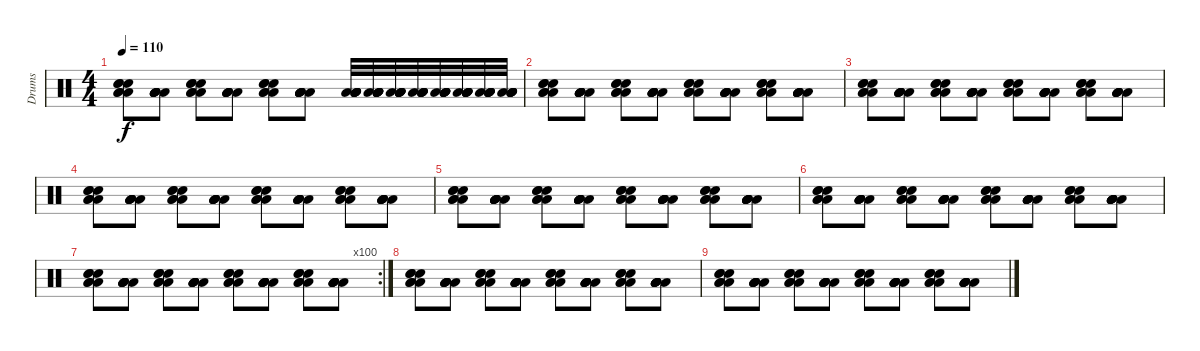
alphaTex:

\track ("Drums" "Drums") {instrument percussion}
\staff {score}
\articulation defaults
\ts (4 4)
\tempo 110
\clef neutral
\ks c
("Electric Snare (hit)" "Electric Snare (hit)" "Electric Snare (hit)" "Low Floor Tom (hit)" "Low Floor Tom (hit)" "Low Floor Tom (hit)").8{dy f} ("Low Floor Tom (hit)" "Low Floor Tom (hit)" "Low Floor Tom (hit)" "Low Floor Tom (hit)" "Low Floor Tom (hit)" "Low Floor Tom (hit)").8 ("Electric Snare (hit)" "Electric Snare (hit)" "Electric Snare (hit)" "Low Floor Tom (hit)" "Low Floor Tom (hit)" "Low Floor Tom (hit)").8 ("Low Floor Tom (hit)" "Low Floor Tom (hit)" "Low Floor Tom (hit)" "Low Floor Tom (hit)" "Low Floor Tom (hit)" "Low Floor Tom (hit)").8 ("Electric Snare (hit)" "Electric Snare (hit)" "Electric Snare (hit)" "Low Floor Tom (hit)" "Low Floor Tom (hit)" "Low Floor Tom (hit)").8 ("Low Floor Tom (hit)" "Low Floor Tom (hit)" "Low Floor Tom (hit)" "Low Floor Tom (hit)" "Low Floor Tom (hit)" "Low Floor Tom (hit)").8 ("Low Floor Tom (hit)" "Low Floor Tom (hit)" "Low Floor Tom (hit)" "Low Floor Tom (hit)" "Low Floor Tom (hit)" "Low Floor Tom (hit)").32 ("Low Floor Tom (hit)" "Low Floor Tom (hit)" "Low Floor Tom (hit)" "Low Floor Tom (hit)" "Low Floor Tom (hit)" "Low Floor Tom (hit)").32 ("Low Floor Tom (hit)" "Low Floor Tom (hit)" "Low Floor Tom (hit)" "Low Floor Tom (hit)" "Low Floor Tom (hit)" "Low Floor Tom (hit)").32 ("Low Floor Tom (hit)" "Low Floor Tom (hit)" "Low Floor Tom (hit)" "Low Floor Tom (hit)" "Low Floor Tom (hit)" "Low Floor Tom (hit)").32 ("Low Floor Tom (hit)" "Low Floor Tom (hit)" "Low Floor Tom (hit)" "Low Floor Tom (hit)" "Low Floor Tom (hit)" "Low Floor Tom (hit)").32 ("Low Floor Tom (hit)" "Low Floor Tom (hit)" "Low Floor Tom (hit)" "Low Floor Tom (hit)" "Low Floor Tom (hit)" "Low Floor Tom (hit)").32 ("Low Floor Tom (hit)" "Low Floor Tom (hit)" "Low Floor Tom (hit)" "Low Floor Tom (hit)" "Low Floor Tom (hit)" "Low Floor Tom (hit)").32 ("Low Floor Tom (hit)" "Low Floor Tom (hit)" "Low Floor Tom (hit)" "Low Floor Tom (hit)" "Low Floor Tom (hit)" "Low Floor Tom (hit)").32 |
("Electric Snare (hit)" "Electric Snare (hit)" "Electric Snare (hit)" "Low Floor Tom (hit)" "Low Floor Tom (hit)" "Low Floor Tom (hit)").8 ("Low Floor Tom (hit)" "Low Floor Tom (hit)" "Low Floor Tom (hit)" "Low Floor Tom (hit)" "Low Floor Tom (hit)" "Low Floor Tom (hit)").8 ("Electric Snare (hit)" "Electric Snare (hit)" "Electric Snare (hit)" "Low Floor Tom (hit)" "Low Floor Tom (hit)" "Low Floor Tom (hit)").8 ("Low Floor Tom (hit)" "Low Floor Tom (hit)" "Low Floor Tom (hit)" "Low Floor Tom (hit)" "Low Floor Tom (hit)" "Low Floor Tom (hit)").8 ("Electric Snare (hit)" "Electric Snare (hit)" "Electric Snare (hit)" "Low Floor Tom (hit)" "Low Floor Tom (hit)" "Low Floor Tom (hit)").8 ("Low Floor Tom (hit)" "Low Floor Tom (hit)" "Low Floor Tom (hit)" "Low Floor Tom (hit)" "Low Floor Tom (hit)" "Low Floor Tom (hit)").8 ("Electric Snare (hit)" "Electric Snare (hit)" "Electric Snare (hit)" "Low Floor Tom (hit)" "Low Floor Tom (hit)" "Low Floor Tom (hit)").8 ("Low Floor Tom (hit)" "Low Floor Tom (hit)" "Low Floor Tom (hit)" "Low Floor Tom (hit)" "Low Floor Tom (hit)" "Low Floor Tom (hit)").8 |
("Electric Snare (hit)" "Electric Snare (hit)" "Electric Snare (hit)" "Low Floor Tom (hit)" "Low Floor Tom (hit)" "Low Floor Tom (hit)").8 ("Low Floor Tom (hit)" "Low Floor Tom (hit)" "Low Floor Tom (hit)" "Low Floor Tom (hit)" "Low Floor Tom (hit)" "Low Floor Tom (hit)").8 ("Electric Snare (hit)" "Electric Snare (hit)" "Electric Snare (hit)" "Low Floor Tom (hit)" "Low Floor Tom (hit)" "Low Floor Tom (hit)").8 ("Low Floor Tom (hit)" "Low Floor Tom (hit)" "Low Floor Tom (hit)" "Low Floor Tom (hit)" "Low Floor Tom (hit)" "Low Floor Tom (hit)").8 ("Electric Snare (hit)" "Electric Snare (hit)" "Electric Snare (hit)" "Low Floor Tom (hit)" "Low Floor Tom (hit)" "Low Floor Tom (hit)").8 ("Low Floor Tom (hit)" "Low Floor Tom (hit)" "Low Floor Tom (hit)" "Low Floor Tom (hit)" "Low Floor Tom (hit)" "Low Floor Tom (hit)").8 ("Electric Snare (hit)" "Electric Snare (hit)" "Electric Snare (hit)" "Low Floor Tom (hit)" "Low Floor Tom (hit)" "Low Floor Tom (hit)").8 ("Low Floor Tom (hit)" "Low Floor Tom (hit)" "Low Floor Tom (hit)" "Low Floor Tom (hit)" "Low Floor Tom (hit)" "Low Floor Tom (hit)").8 |
("Electric Snare (hit)" "Electric Snare (hit)" "Electric Snare (hit)" "Low Floor Tom (hit)" "Low Floor Tom (hit)" "Low Floor Tom (hit)").8 ("Low Floor Tom (hit)" "Low Floor Tom (hit)" "Low Floor Tom (hit)" "Low Floor Tom (hit)" "Low Floor Tom (hit)" "Low Floor Tom (hit)").8 ("Electric Snare (hit)" "Electric Snare (hit)" "Electric Snare (hit)" "Low Floor Tom (hit)" "Low Floor Tom (hit)" "Low Floor Tom (hit)").8 ("Low Floor Tom (hit)" "Low Floor Tom (hit)" "Low Floor Tom (hit)" "Low Floor Tom (hit)" "Low Floor Tom (hit)" "Low Floor Tom (hit)").8 ("Electric Snare (hit)" "Electric Snare (hit)" "Electric Snare (hit)" "Low Floor Tom (hit)" "Low Floor Tom (hit)" "Low Floor Tom (hit)").8 ("Low Floor Tom (hit)" "Low Floor Tom (hit)" "Low Floor Tom (hit)" "Low Floor Tom (hit)" "Low Floor Tom (hit)" "Low Floor Tom (hit)").8 ("Electric Snare (hit)" "Electric Snare (hit)" "Electric Snare (hit)" "Low Floor Tom (hit)" "Low Floor Tom (hit)" "Low Floor Tom (hit)").8 ("Low Floor Tom (hit)" "Low Floor Tom (hit)" "Low Floor Tom (hit)" "Low Floor Tom (hit)" "Low Floor Tom (hit)" "Low Floor Tom (hit)").8 |
("Electric Snare (hit)" "Electric Snare (hit)" "Electric Snare (hit)" "Low Floor Tom (hit)" "Low Floor Tom (hit)" "Low Floor Tom (hit)").8 ("Low Floor Tom (hit)" "Low Floor Tom (hit)" "Low Floor Tom (hit)" "Low Floor Tom (hit)" "Low Floor Tom (hit)" "Low Floor Tom (hit)").8 ("Electric Snare (hit)" "Electric Snare (hit)" "Electric Snare (hit)" "Low Floor Tom (hit)" "Low Floor Tom (hit)" "Low Floor Tom (hit)").8 ("Low Floor Tom (hit)" "Low Floor Tom (hit)" "Low Floor Tom (hit)" "Low Floor Tom (hit)" "Low Floor Tom (hit)" "Low Floor Tom (hit)").8 ("Electric Snare (hit)" "Electric Snare (hit)" "Electric Snare (hit)" "Low Floor Tom (hit)" "Low Floor Tom (hit)" "Low Floor Tom (hit)").8 ("Low Floor Tom (hit)" "Low Floor Tom (hit)" "Low Floor Tom (hit)" "Low Floor Tom (hit)" "Low Floor Tom (hit)" "Low Floor Tom (hit)").8 ("Electric Snare (hit)" "Electric Snare (hit)" "Electric Snare (hit)" "Low Floor Tom (hit)" "Low Floor Tom (hit)" "Low Floor Tom (hit)").8 ("Low Floor Tom (hit)" "Low Floor Tom (hit)" "Low Floor Tom (hit)" "Low Floor Tom (hit)" "Low Floor Tom (hit)" "Low Floor Tom (hit)").8 |
("Electric Snare (hit)" "Electric Snare (hit)" "Electric Snare (hit)" "Low Floor Tom (hit)" "Low Floor Tom (hit)" "Low Floor Tom (hit)").8 ("Low Floor Tom (hit)" "Low Floor Tom (hit)" "Low Floor Tom (hit)" "Low Floor Tom (hit)" "Low Floor Tom (hit)" "Low Floor Tom (hit)").8 ("Electric Snare (hit)" "Electric Snare (hit)" "Electric Snare (hit)" "Low Floor Tom (hit)" "Low Floor Tom (hit)" "Low Floor Tom (hit)").8 ("Low Floor Tom (hit)" "Low Floor Tom (hit)" "Low Floor Tom (hit)" "Low Floor Tom (hit)" "Low Floor Tom (hit)" "Low Floor Tom (hit)").8 ("Electric Snare (hit)" "Electric Snare (hit)" "Electric Snare (hit)" "Low Floor Tom (hit)" "Low Floor Tom (hit)" "Low Floor Tom (hit)").8 ("Low Floor Tom (hit)" "Low Floor Tom (hit)" "Low Floor Tom (hit)" "Low Floor Tom (hit)" "Low Floor Tom (hit)" "Low Floor Tom (hit)").8 ("Electric Snare (hit)" "Electric Snare (hit)" "Electric Snare (hit)" "Low Floor Tom (hit)" "Low Floor Tom (hit)" "Low Floor Tom (hit)").8 ("Low Floor Tom (hit)" "Low Floor Tom (hit)" "Low Floor Tom (hit)" "Low Floor Tom (hit)" "Low Floor Tom (hit)" "Low Floor Tom (hit)").8 |
\rc 100
("Electric Snare (hit)" "Electric Snare (hit)" "Electric Snare (hit)" "Low Floor Tom (hit)" "Low Floor Tom (hit)" "Low Floor Tom (hit)").8 ("Low Floor Tom (hit)" "Low Floor Tom (hit)" "Low Floor Tom (hit)" "Low Floor Tom (hit)" "Low Floor Tom (hit)" "Low Floor Tom (hit)").8 ("Electric Snare (hit)" "Electric Snare (hit)" "Electric Snare (hit)" "Low Floor Tom (hit)" "Low Floor Tom (hit)" "Low Floor Tom (hit)").8 ("Low Floor Tom (hit)" "Low Floor Tom (hit)" "Low Floor Tom (hit)" "Low Floor Tom (hit)" "Low Floor Tom (hit)" "Low Floor Tom (hit)").8 ("Electric Snare (hit)" "Electric Snare (hit)" "Electric Snare (hit)" "Low Floor Tom (hit)" "Low Floor Tom (hit)" "Low Floor Tom (hit)").8 ("Low Floor Tom (hit)" "Low Floor Tom (hit)" "Low Floor Tom (hit)" "Low Floor Tom (hit)" "Low Floor Tom (hit)" "Low Floor Tom (hit)").8 ("Electric Snare (hit)" "Electric Snare (hit)" "Electric Snare (hit)" "Low Floor Tom (hit)" "Low Floor Tom (hit)" "Low Floor Tom (hit)").8 ("Low Floor Tom (hit)" "Low Floor Tom (hit)" "Low Floor Tom (hit)" "Low Floor Tom (hit)" "Low Floor Tom (hit)" "Low Floor Tom (hit)").8 |
("Electric Snare (hit)" "Electric Snare (hit)" "Electric Snare (hit)" "Low Floor Tom (hit)" "Low Floor Tom (hit)" "Low Floor Tom (hit)").8 ("Low Floor Tom (hit)" "Low Floor Tom (hit)" "Low Floor Tom (hit)" "Low Floor Tom (hit)" "Low Floor Tom (hit)" "Low Floor Tom (hit)").8 ("Electric Snare (hit)" "Electric Snare (hit)" "Electric Snare (hit)" "Low Floor Tom (hit)" "Low Floor Tom (hit)" "Low Floor Tom (hit)").8 ("Low Floor Tom (hit)" "Low Floor Tom (hit)" "Low Floor Tom (hit)" "Low Floor Tom (hit)" "Low Floor Tom (hit)" "Low Floor Tom (hit)").8 ("Electric Snare (hit)" "Electric Snare (hit)" "Electric Snare (hit)" "Low Floor Tom (hit)" "Low Floor Tom (hit)" "Low Floor Tom (hit)").8 ("Low Floor Tom (hit)" "Low Floor Tom (hit)" "Low Floor Tom (hit)" "Low Floor Tom (hit)" "Low Floor Tom (hit)" "Low Floor Tom (hit)").8 ("Electric Snare (hit)" "Electric Snare (hit)" "Electric Snare (hit)" "Low Floor Tom (hit)" "Low Floor Tom (hit)" "Low Floor Tom (hit)").8 ("Low Floor Tom (hit)" "Low Floor Tom (hit)" "Low Floor Tom (hit)" "Low Floor Tom (hit)" "Low Floor Tom (hit)" "Low Floor Tom (hit)").8 |
("Electric Snare (hit)" "Electric Snare (hit)" "Electric Snare (hit)" "Low Floor Tom (hit)" "Low Floor Tom (hit)" "Low Floor Tom (hit)").8 ("Low Floor Tom (hit)" "Low Floor Tom (hit)" "Low Floor Tom (hit)" "Low Floor Tom (hit)" "Low Floor Tom (hit)" "Low Floor Tom (hit)").8 ("Electric Snare (hit)" "Electric Snare (hit)" "Electric Snare (hit)" "Low Floor Tom (hit)" "Low Floor Tom (hit)" "Low Floor Tom (hit)").8 ("Low Floor Tom (hit)" "Low Floor Tom (hit)" "Low Floor Tom (hit)" "Low Floor Tom (hit)" "Low Floor Tom (hit)" "Low Floor Tom (hit)").8 ("Electric Snare (hit)" "Electric Snare (hit)" "Electric Snare (hit)" "Low Floor Tom (hit)" "Low Floor Tom (hit)" "Low Floor Tom (hit)").8 ("Low Floor Tom (hit)" "Low Floor Tom (hit)" "Low Floor Tom (hit)" "Low Floor Tom (hit)" "Low Floor Tom (hit)" "Low Floor Tom (hit)").8 ("Electric Snare (hit)" "Electric Snare (hit)" "Electric Snare (hit)" "Low Floor Tom (hit)" "Low Floor Tom (hit)" "Low Floor Tom (hit)").8 ("Low Floor Tom (hit)" "Low Floor Tom (hit)" "Low Floor Tom (hit)" "Low Floor Tom (hit)" "Low Floor Tom (hit)" "Low Floor Tom (hit)").8
